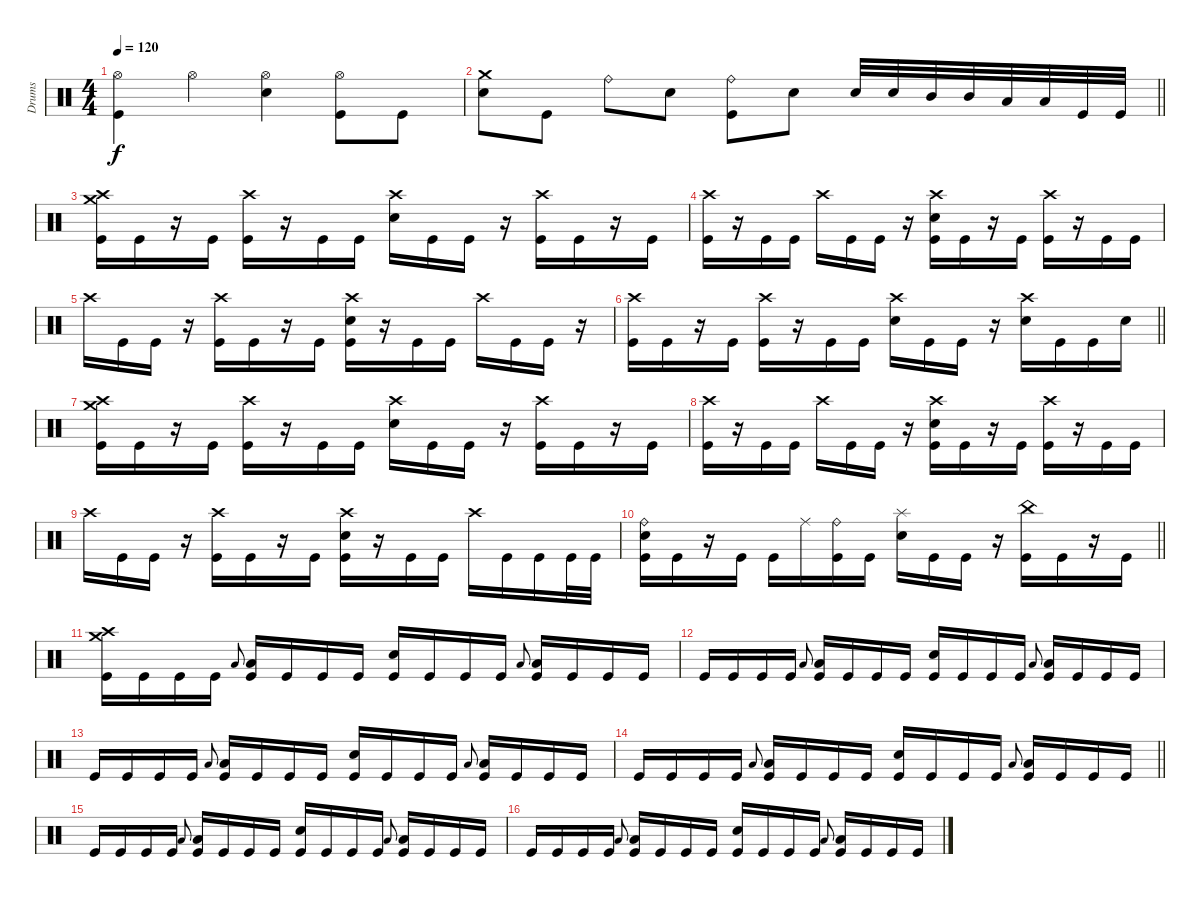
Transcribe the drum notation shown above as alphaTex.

\track ("Drums" "Drums") {instrument percussion}
\staff
\articulation defaults
\ts (4 4)
\tempo 120
\clef neutral
\ks c
("Hi-Hat (open)" "Kick (hit)").4{dy f} "Hi-Hat (open)".4 ("Hi-Hat (open)" "Electric Snare (hit)").4 ("Hi-Hat (open)" "Kick (hit)").8 "Kick (hit)".8 |
\barLineRight lightlight
("Crash medium (hit)" "Electric Snare (hit)").8 "Kick (hit)".8 "Ride (bell)".8 "Electric Snare (hit)".8 ("Ride (bell)" "Kick (hit)").8 "Electric Snare (hit)".8 "Electric Snare (hit)".32 "Electric Snare (hit)".32 "Mid Tom (hit)".32 "Mid Tom (hit)".32 "Low Tom (hit)".32 "Low Tom (hit)".32 "Kick (hit)".32 "Kick (hit)".32 |
\section ("" "")
("Crash high (hit)" "Crash medium (hit)" "Kick (hit)").16 "Kick (hit)".16 r.16 "Kick (hit)".16 ("Crash high (hit)" "Kick (hit)").16 r.16 "Kick (hit)".16 "Kick (hit)".16 ("Crash high (hit)" "Electric Snare (hit)").16 "Kick (hit)".16 "Kick (hit)".16 r.16 ("Crash high (hit)" "Kick (hit)").16 "Kick (hit)".16 r.16 "Kick (hit)".16 |
("Crash high (hit)" "Kick (hit)").16 r.16 "Kick (hit)".16 "Kick (hit)".16 "Crash high (hit)".16 "Kick (hit)".16 "Kick (hit)".16 r.16 ("Crash high (hit)" "Electric Snare (hit)" "Kick (hit)").16 "Kick (hit)".16 r.16 "Kick (hit)".16 ("Crash high (hit)" "Kick (hit)").16 r.16 "Kick (hit)".16 "Kick (hit)".16 |
"Crash high (hit)".16 "Kick (hit)".16 "Kick (hit)".16 r.16 ("Crash high (hit)" "Kick (hit)").16 "Kick (hit)".16 r.16 "Kick (hit)".16 ("Crash high (hit)" "Electric Snare (hit)" "Kick (hit)").16 r.16 "Kick (hit)".16 "Kick (hit)".16 "Crash high (hit)".16 "Kick (hit)".16 "Kick (hit)".16 r.16 |
\barLineRight lightlight
("Crash high (hit)" "Kick (hit)").16 "Kick (hit)".16 r.16 "Kick (hit)".16 ("Crash high (hit)" "Kick (hit)").16 r.16 "Kick (hit)".16 "Kick (hit)".16 ("Crash high (hit)" "Electric Snare (hit)").16 "Kick (hit)".16 "Kick (hit)".16 r.16 ("Crash high (hit)" "Electric Snare (hit)").16 "Kick (hit)".16 "Kick (hit)".16 "Electric Snare (hit)".16 |
("Crash high (hit)" "Crash medium (hit)" "Kick (hit)").16 "Kick (hit)".16 r.16 "Kick (hit)".16 ("Crash high (hit)" "Kick (hit)").16 r.16 "Kick (hit)".16 "Kick (hit)".16 ("Crash high (hit)" "Electric Snare (hit)").16 "Kick (hit)".16 "Kick (hit)".16 r.16 ("Crash high (hit)" "Kick (hit)").16 "Kick (hit)".16 r.16 "Kick (hit)".16 |
("Crash high (hit)" "Kick (hit)").16 r.16 "Kick (hit)".16 "Kick (hit)".16 "Crash high (hit)".16 "Kick (hit)".16 "Kick (hit)".16 r.16 ("Crash high (hit)" "Electric Snare (hit)" "Kick (hit)").16 "Kick (hit)".16 r.16 "Kick (hit)".16 ("Crash high (hit)" "Kick (hit)").16 r.16 "Kick (hit)".16 "Kick (hit)".16 |
"Crash high (hit)".16 "Kick (hit)".16 "Kick (hit)".16 r.16 ("Crash high (hit)" "Kick (hit)").16 "Kick (hit)".16 r.16 "Kick (hit)".16 ("Crash high (hit)" "Electric Snare (hit)" "Kick (hit)").16 r.16 "Kick (hit)".16 "Kick (hit)".16 "Crash high (hit)".16 "Kick (hit)".16 "Kick (hit)".16 "Kick (hit)".32 "Kick (hit)".32 |
\barLineRight lightlight
("Ride (bell)" "Electric Snare (hit)" "Kick (hit)").16 "Kick (hit)".16 r.16 "Kick (hit)".16 "Kick (hit)".16 "Ride (middle)".16 ("Ride (bell)" "Kick (hit)").16 "Kick (hit)".16 ("Splash (hit)" "Electric Snare (hit)").16 "Kick (hit)".16 "Kick (hit)".16 r.16 ("China (hit)" "Kick (hit)").16 "Kick (hit)".16 r.16 "Kick (hit)".16 |
\section ("" "")
("Crash high (hit)" "Crash medium (hit)" "Kick (hit)").16 "Kick (hit)".16 "Kick (hit)".16 "Kick (hit)".16 "Low Floor Tom (hit)".8{gr onbeat} ("Low Floor Tom (hit)" "Kick (hit)").16 "Kick (hit)".16 "Kick (hit)".16 "Kick (hit)".16 ("Electric Snare (hit)" "Kick (hit)").16 "Kick (hit)".16 "Kick (hit)".16 "Kick (hit)".16 "Low Floor Tom (hit)".8{gr onbeat} ("Low Floor Tom (hit)" "Kick (hit)").16 "Kick (hit)".16 "Kick (hit)".16 "Kick (hit)".16 |
"Kick (hit)".16 "Kick (hit)".16 "Kick (hit)".16 "Kick (hit)".16 "Low Floor Tom (hit)".8{gr onbeat} ("Low Floor Tom (hit)" "Kick (hit)").16 "Kick (hit)".16 "Kick (hit)".16 "Kick (hit)".16 ("Electric Snare (hit)" "Kick (hit)").16 "Kick (hit)".16 "Kick (hit)".16 "Kick (hit)".16 "Low Floor Tom (hit)".8{gr onbeat} ("Low Floor Tom (hit)" "Kick (hit)").16 "Kick (hit)".16 "Kick (hit)".16 "Kick (hit)".16 |
"Kick (hit)".16 "Kick (hit)".16 "Kick (hit)".16 "Kick (hit)".16 "Low Floor Tom (hit)".8{gr onbeat} ("Low Floor Tom (hit)" "Kick (hit)").16 "Kick (hit)".16 "Kick (hit)".16 "Kick (hit)".16 ("Electric Snare (hit)" "Kick (hit)").16 "Kick (hit)".16 "Kick (hit)".16 "Kick (hit)".16 "Low Floor Tom (hit)".8{gr onbeat} ("Low Floor Tom (hit)" "Kick (hit)").16 "Kick (hit)".16 "Kick (hit)".16 "Kick (hit)".16 |
\barLineRight lightlight "Kick (hit)".16 "Kick (hit)".16 "Kick (hit)".16 "Kick (hit)".16 "Low Floor Tom (hit)".8{gr onbeat}
("Low Floor Tom (hit)" "Kick (hit)").16 "Kick (hit)".16 "Kick (hit)".16 "Kick (hit)".16 ("Electric Snare (hit)" "Kick (hit)").16 "Kick (hit)".16 "Kick (hit)".16 "Kick (hit)".16 "Low Floor Tom (hit)".8{gr onbeat} ("Low Floor Tom (hit)" "Kick (hit)").16 "Kick (hit)".16 "Kick (hit)".16 "Kick (hit)".16 |
"Kick (hit)".16 "Kick (hit)".16 "Kick (hit)".16 "Kick (hit)".16 "Low Floor Tom (hit)".8{gr onbeat} ("Low Floor Tom (hit)" "Kick (hit)").16 "Kick (hit)".16 "Kick (hit)".16 "Kick (hit)".16 ("Electric Snare (hit)" "Kick (hit)").16 "Kick (hit)".16 "Kick (hit)".16 "Kick (hit)".16 "Low Floor Tom (hit)".8{gr onbeat} ("Low Floor Tom (hit)" "Kick (hit)").16 "Kick (hit)".16 "Kick (hit)".16 "Kick (hit)".16 |
"Kick (hit)".16 "Kick (hit)".16 "Kick (hit)".16 "Kick (hit)".16 "Low Floor Tom (hit)".8{gr onbeat} ("Low Floor Tom (hit)" "Kick (hit)").16 "Kick (hit)".16 "Kick (hit)".16 "Kick (hit)".16 ("Electric Snare (hit)" "Kick (hit)").16 "Kick (hit)".16 "Kick (hit)".16 "Kick (hit)".16 "Low Floor Tom (hit)".8{gr onbeat} ("Low Floor Tom (hit)" "Kick (hit)").16 "Kick (hit)".16 "Kick (hit)".16 "Kick (hit)".16
